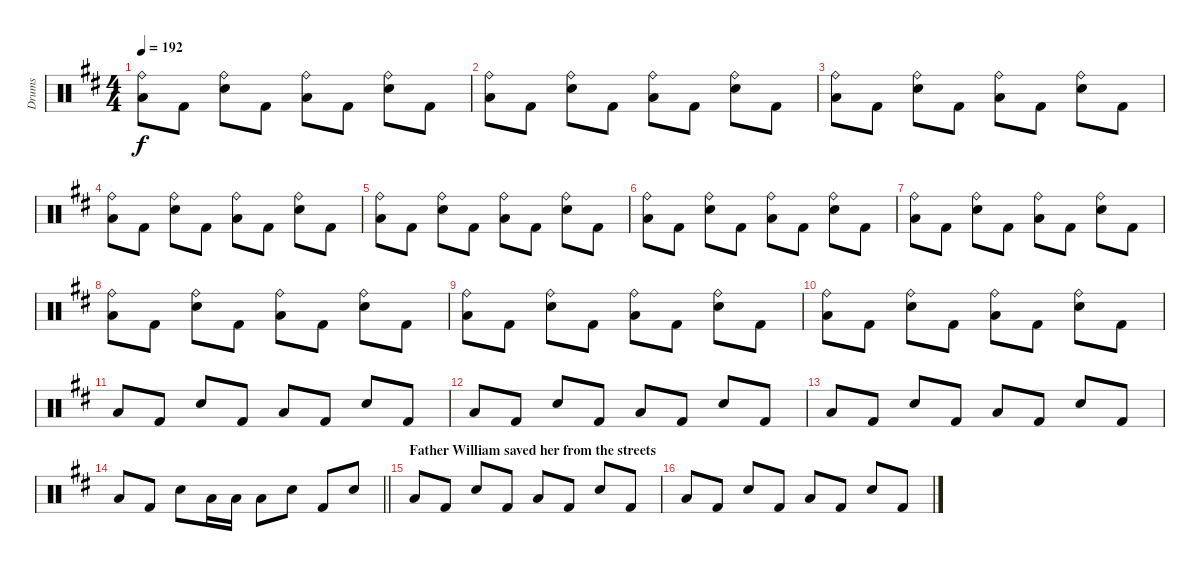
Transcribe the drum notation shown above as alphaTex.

\track ("Drums" "Drums") {instrument percussion}
\staff {score}
\articulation defaults
\ts (4 4)
\tempo 192
\clef neutral
\ks d
("Ride (bell)" "Low Tom (hit)").8{dy f} "Kick (hit) 2".8 ("Ride (bell)" "Snare (hit) 2").8 "Kick (hit) 2".8 ("Ride (bell)" "Low Tom (hit)").8 "Kick (hit) 2".8 ("Ride (bell)" "Snare (hit) 2").8 "Kick (hit) 2".8 |
("Ride (bell)" "Low Tom (hit)").8 "Kick (hit) 2".8 ("Ride (bell)" "Snare (hit) 2").8 "Kick (hit) 2".8 ("Ride (bell)" "Low Tom (hit)").8 "Kick (hit) 2".8 ("Ride (bell)" "Snare (hit) 2").8 "Kick (hit) 2".8 |
("Ride (bell)" "Low Tom (hit)").8 "Kick (hit) 2".8 ("Ride (bell)" "Snare (hit) 2").8 "Kick (hit) 2".8 ("Ride (bell)" "Low Tom (hit)").8 "Kick (hit) 2".8 ("Ride (bell)" "Snare (hit) 2").8 "Kick (hit) 2".8 |
("Ride (bell)" "Low Tom (hit)").8 "Kick (hit) 2".8 ("Ride (bell)" "Snare (hit) 2").8 "Kick (hit) 2".8 ("Ride (bell)" "Low Tom (hit)").8 "Kick (hit) 2".8 ("Ride (bell)" "Snare (hit) 2").8 "Kick (hit) 2".8 |
("Ride (bell)" "Low Tom (hit)").8 "Kick (hit) 2".8 ("Ride (bell)" "Snare (hit) 2").8 "Kick (hit) 2".8 ("Ride (bell)" "Low Tom (hit)").8 "Kick (hit) 2".8 ("Ride (bell)" "Snare (hit) 2").8 "Kick (hit) 2".8 |
("Ride (bell)" "Low Tom (hit)").8 "Kick (hit) 2".8 ("Ride (bell)" "Snare (hit) 2").8 "Kick (hit) 2".8 ("Ride (bell)" "Low Tom (hit)").8 "Kick (hit) 2".8 ("Ride (bell)" "Snare (hit) 2").8 "Kick (hit) 2".8 |
("Ride (bell)" "Low Tom (hit)").8 "Kick (hit) 2".8 ("Ride (bell)" "Snare (hit) 2").8 "Kick (hit) 2".8 ("Ride (bell)" "Low Tom (hit)").8 "Kick (hit) 2".8 ("Ride (bell)" "Snare (hit) 2").8 "Kick (hit) 2".8 |
("Ride (bell)" "Low Tom (hit)").8 "Kick (hit) 2".8 ("Ride (bell)" "Snare (hit) 2").8 "Kick (hit) 2".8 ("Ride (bell)" "Low Tom (hit)").8 "Kick (hit) 2".8 ("Ride (bell)" "Snare (hit) 2").8 "Kick (hit) 2".8 |
("Ride (bell)" "Low Tom (hit)").8 "Kick (hit) 2".8 ("Ride (bell)" "Snare (hit) 2").8 "Kick (hit) 2".8 ("Ride (bell)" "Low Tom (hit)").8 "Kick (hit) 2".8 ("Ride (bell)" "Snare (hit) 2").8 "Kick (hit) 2".8 |
("Ride (bell)" "Low Tom (hit)").8 "Kick (hit) 2".8 ("Ride (bell)" "Snare (hit) 2").8 "Kick (hit) 2".8 ("Ride (bell)" "Low Tom (hit)").8 "Kick (hit) 2".8 ("Ride (bell)" "Snare (hit) 2").8 "Kick (hit) 2".8 |
"Low Tom (hit)".8 "Kick (hit) 2".8 "Snare (hit) 2".8 "Kick (hit) 2".8 "Low Tom (hit)".8 "Kick (hit) 2".8 "Snare (hit) 2".8 "Kick (hit) 2".8 |
"Low Tom (hit)".8 "Kick (hit) 2".8 "Snare (hit) 2".8 "Kick (hit) 2".8 "Low Tom (hit)".8 "Kick (hit) 2".8 "Snare (hit) 2".8 "Kick (hit) 2".8 |
"Low Tom (hit)".8 "Kick (hit) 2".8 "Snare (hit) 2".8 "Kick (hit) 2".8 "Low Tom (hit)".8 "Kick (hit) 2".8 "Snare (hit) 2".8 "Kick (hit) 2".8 |
\barLineRight lightlight "Low Tom (hit)".8 "Kick (hit) 2".8 "Snare (hit) 2".8 "Low Tom (hit)".16 "Low Tom (hit)".16 "Low Tom (hit)".8 "Snare (hit) 2".8 "Kick (hit) 2".8 "Snare (hit) 2".8
|
\section ("" "Father William saved her from the streets")
"Low Tom (hit)".8 "Kick (hit) 2".8 "Snare (hit) 2".8 "Kick (hit) 2".8 "Low Tom (hit)".8 "Kick (hit) 2".8 "Snare (hit) 2".8 "Kick (hit) 2".8 |
"Low Tom (hit)".8 "Kick (hit) 2".8 "Snare (hit) 2".8 "Kick (hit) 2".8 "Low Tom (hit)".8 "Kick (hit) 2".8 "Snare (hit) 2".8 "Kick (hit) 2".8
